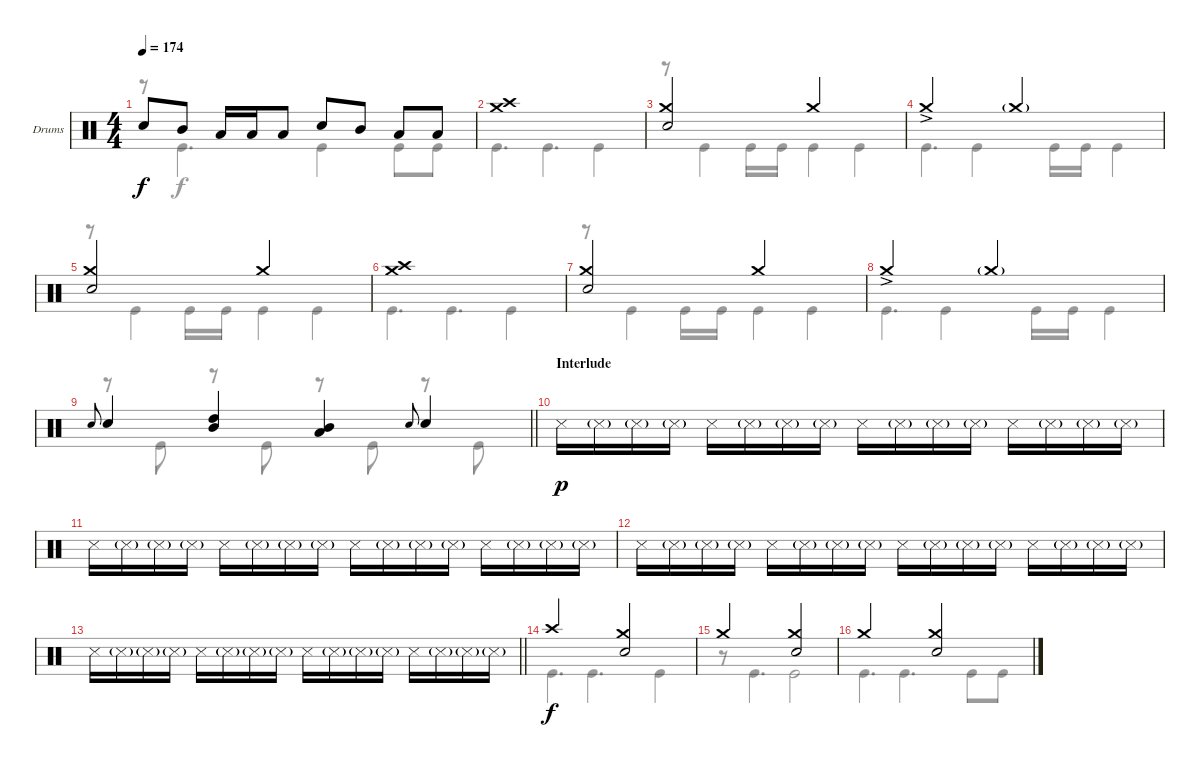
\bracketExtendMode groupsimilarinstruments
\firstSystemTrackNameOrientation horizontal
\otherSystemsTrackNameOrientation horizontal
\track ("Drumkit" "Drums") {instrument percussion}
\staff {score}
\articulation defaults
\voice
\ts (4 4)
\tempo 174
\clef neutral
\ks c "Snare (hit) 2".8{dy f} "Mid Tom (hit)".8 "Low Tom (hit)".16 "Low Tom (hit)".16 "Low Tom (hit)".8 "Snare (hit) 2".8 "Mid Tom (hit)".8 "Low Tom (hit)".8 "Low Tom (hit)".8
|
("Crash high (hit)" "Crash medium (hit)").1 |
("Crash medium (hit)" "Snare (hit) 2").2 "Crash medium (hit)".2 |
"Crash medium (hit)"{ac}.2 "Crash medium (hit)"{g}.2 |
("Crash medium (hit)" "Snare (hit) 2").2 "Crash medium (hit)".2 |
("Crash high (hit)" "Crash medium (hit)").1 |
("Crash medium (hit)" "Snare (hit) 2").2 "Crash medium (hit)".2 |
"Crash medium (hit)"{ac}.2 "Crash medium (hit)"{g}.2 |
\barLineRight lightlight "Snare (hit) 2".8{gr onbeat} "Snare (hit) 2".4
("High Tom (hit)" "Mid Tom (hit)").4 ("Mid Tom (hit)" "Low Tom (hit)").4 "Snare (hit) 2".8{gr onbeat} "Snare (hit) 2".4 |
\section ("" "Interlude")
"Snare (side stick) 3".16{dy p} "Snare (side stick) 3"{g}.16 "Snare (side stick) 3"{g}.16 "Snare (side stick) 3"{g}.16 "Snare (side stick) 3".16 "Snare (side stick) 3"{g}.16 "Snare (side stick) 3"{g}.16 "Snare (side stick) 3"{g}.16 "Snare (side stick) 3".16 "Snare (side stick) 3"{g}.16 "Snare (side stick) 3"{g}.16 "Snare (side stick) 3"{g}.16 "Snare (side stick) 3".16 "Snare (side stick) 3"{g}.16 "Snare (side stick) 3"{g}.16 "Snare (side stick) 3"{g}.16 |
"Snare (side stick) 3".16 "Snare (side stick) 3"{g}.16 "Snare (side stick) 3"{g}.16 "Snare (side stick) 3"{g}.16 "Snare (side stick) 3".16 "Snare (side stick) 3"{g}.16 "Snare (side stick) 3"{g}.16 "Snare (side stick) 3"{g}.16 "Snare (side stick) 3".16 "Snare (side stick) 3"{g}.16 "Snare (side stick) 3"{g}.16 "Snare (side stick) 3"{g}.16 "Snare (side stick) 3".16 "Snare (side stick) 3"{g}.16 "Snare (side stick) 3"{g}.16 "Snare (side stick) 3"{g}.16 |
"Snare (side stick) 3".16 "Snare (side stick) 3"{g}.16 "Snare (side stick) 3"{g}.16 "Snare (side stick) 3"{g}.16 "Snare (side stick) 3".16 "Snare (side stick) 3"{g}.16 "Snare (side stick) 3"{g}.16 "Snare (side stick) 3"{g}.16 "Snare (side stick) 3".16 "Snare (side stick) 3"{g}.16 "Snare (side stick) 3"{g}.16 "Snare (side stick) 3"{g}.16 "Snare (side stick) 3".16 "Snare (side stick) 3"{g}.16 "Snare (side stick) 3"{g}.16 "Snare (side stick) 3"{g}.16 |
\barLineRight lightlight "Snare (side stick) 3".16 "Snare (side stick) 3"{g}.16 "Snare (side stick) 3"{g}.16 "Snare (side stick) 3"{g}.16 "Snare (side stick) 3".16 "Snare (side stick) 3"{g}.16 "Snare (side stick) 3"{g}.16 "Snare (side stick) 3"{g}.16 "Snare (side stick) 3".16 "Snare (side stick) 3"{g}.16 "Snare (side stick) 3"{g}.16 "Snare (side stick) 3"{g}.16 "Snare (side stick) 3".16 "Snare (side stick) 3"{g}.16 "Snare (side stick) 3"{g}.16 "Snare (side stick) 3"{g}.16
|
\section ("" "")
"Crash high (hit)".2{dy f} ("Crash medium (hit)" "Snare (hit) 2").2 |
"Crash medium (hit)".2 ("Crash medium (hit)" "Snare (hit) 2").2 |
"Crash medium (hit)".2 ("Crash medium (hit)" "Snare (hit) 2").2
\voice
\clef neutral
\ottava regular
\simile none
\ks c
r.8{dy f} "Kick (hit)".4{d} "Kick (hit)".4 "Kick (hit)".8 "Kick (hit)".8 |
"Kick (hit)".4{d} "Kick (hit)".4{d} "Kick (hit)".4 |
r.8 "Kick (hit)".4 "Kick (hit)".16 "Kick (hit)".16 "Kick (hit)".4 "Kick (hit)".4 |
"Kick (hit)".4{d} "Kick (hit)".4 "Kick (hit)".16 "Kick (hit)".16 "Kick (hit)".4 |
r.8 "Kick (hit)".4 "Kick (hit)".16 "Kick (hit)".16 "Kick (hit)".4 "Kick (hit)".4 |
"Kick (hit)".4{d} "Kick (hit)".4{d} "Kick (hit)".4 |
r.8 "Kick (hit)".4 "Kick (hit)".16 "Kick (hit)".16 "Kick (hit)".4 "Kick (hit)".4 |
"Kick (hit)".4{d} "Kick (hit)".4 "Kick (hit)".16 "Kick (hit)".16 "Kick (hit)".4 |
\barLineRight lightlight
r.8 "Kick (hit)".8 r.8 "Kick (hit)".8 r.8 "Kick (hit)".8 r.8 "Kick (hit)".8 |
|
|
|
\barLineRight lightlight
|
"Kick (hit)".4{d} "Kick (hit)".4{d} "Kick (hit)".4 |
r.8 "Kick (hit)".4{d} "Kick (hit)".2 |
"Kick (hit)".4{d} "Kick (hit)".4{d} "Kick (hit)".8 "Kick (hit)".8
